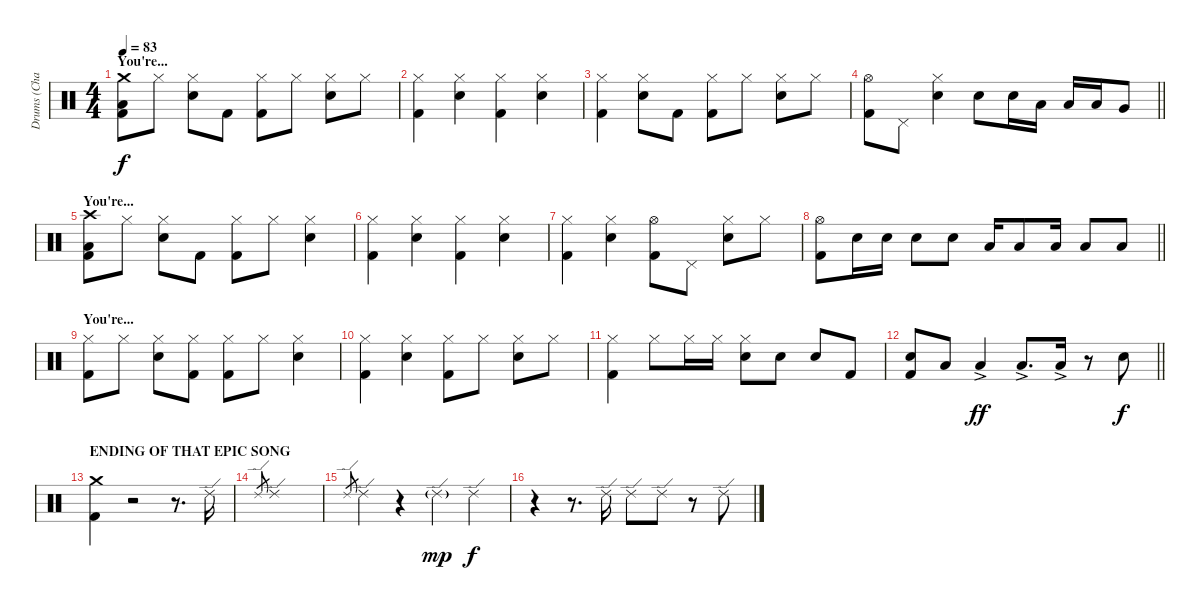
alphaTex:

\track ("Drums (Charlie)" "Drums (Cha") {instrument percussion}
\staff {score}
\articulation defaults
\ts (4 4)
\section ("" "You're...")
\tempo 83
\clef neutral
\ks c
("Crash medium (hit)" "Low Floor Tom (hit)" "Kick (hit) 2").8{dy f} "Hi-Hat (closed)".8 ("Hi-Hat (closed)" "Snare (hit) 2").8 "Kick (hit) 2".8 ("Hi-Hat (closed)" "Kick (hit) 2").8 "Hi-Hat (closed)".8 ("Hi-Hat (closed)" "Snare (hit) 2").8 "Hi-Hat (closed)".8 |
("Hi-Hat (closed)" "Kick (hit) 2").4 ("Hi-Hat (closed)" "Snare (hit) 2").4 ("Hi-Hat (closed)" "Kick (hit) 2").4 ("Hi-Hat (closed)" "Snare (hit) 2").4 |
("Hi-Hat (closed)" "Kick (hit) 2").4 ("Hi-Hat (closed)" "Snare (hit) 2").8 "Kick (hit) 2".8 ("Hi-Hat (closed)" "Kick (hit) 2").8 "Hi-Hat (closed)".8 ("Hi-Hat (closed)" "Snare (hit) 2").8 "Hi-Hat (closed)".8 |
\barLineRight lightlight
("Hi-Hat (open)" "Kick (hit) 2").8 "Pedal Hi-Hat (hit)".8 ("Hi-Hat (closed)" "Snare (hit) 2").4 "Snare (hit) 2".8 "Snare (hit) 2".16 "Low Tom (hit)".16 "Low Tom (hit)".16 "Low Floor Tom (hit)".16 "Very Low Tom (hit)".8 |
\section ("" "You're...")
("Crash high (hit)" "Low Floor Tom (hit)" "Kick (hit) 2").8 "Hi-Hat (closed)".8 ("Hi-Hat (closed)" "Snare (hit) 2").8 "Kick (hit) 2".8 ("Hi-Hat (closed)" "Kick (hit) 2").8 "Hi-Hat (closed)".8 ("Hi-Hat (closed)" "Snare (hit) 2").4 |
("Hi-Hat (closed)" "Kick (hit) 2").4 ("Hi-Hat (closed)" "Snare (hit) 2").4 ("Hi-Hat (closed)" "Kick (hit) 2").4 ("Hi-Hat (closed)" "Snare (hit) 2").4 |
("Hi-Hat (closed)" "Kick (hit) 2").4 ("Hi-Hat (closed)" "Snare (hit) 2").4 ("Hi-Hat (open)" "Kick (hit) 2").8 "Pedal Hi-Hat (hit)".8 ("Hi-Hat (closed)" "Snare (hit) 2").8 "Hi-Hat (closed)".8 |
\barLineRight lightlight
("Hi-Hat (open)" "Kick (hit) 2").8 "Snare (hit) 2".16 "Snare (hit) 2".16 "Snare (hit) 2".8 "Snare (hit) 2".8 "Low Tom (hit)".16 "Low Tom (hit)".8 "Low Tom (hit)".16 "Low Tom (hit)".8 "Low Tom (hit)".8 |
\section ("" "You're...")
("Hi-Hat (closed)" "Kick (hit) 2").8 "Hi-Hat (closed)".8 ("Hi-Hat (closed)" "Snare (hit) 2").8 ("Hi-Hat (closed)" "Kick (hit) 2").8 ("Hi-Hat (closed)" "Kick (hit) 2").8 "Hi-Hat (closed)".8 ("Hi-Hat (closed)" "Snare (hit) 2").4 |
("Hi-Hat (closed)" "Kick (hit) 2").4 ("Hi-Hat (closed)" "Snare (hit) 2").4 ("Hi-Hat (closed)" "Kick (hit) 2").8 "Hi-Hat (closed)".8 ("Hi-Hat (closed)" "Snare (hit) 2").8 "Hi-Hat (closed)".8 |
("Hi-Hat (closed)" "Kick (hit) 2").4 "Hi-Hat (closed)".8 "Hi-Hat (closed)".16 "Hi-Hat (closed)".16 ("Hi-Hat (closed)" "Snare (hit) 2").8 "Snare (hit) 2".8 "Snare (hit) 2".8 "Kick (hit) 2".8 |
\barLineRight lightlight
("Snare (hit) 2" "Kick (hit) 2").8 "Low Floor Tom (hit)".8 "Low Tom (hit)"{ac}.4{dy ff} "Low Floor Tom (hit)"{ac}.8{d} "Low Tom (hit)"{ac}.16 r.8 "Snare (hit) 2".8{dy f} |
\section ("" "ENDING OF THAT EPIC SONG")
("Crash medium (hit)" "Kick (hit) 2").4 r.2 r.8{d} "Ride (edge) 2".16 |
"Ride (edge) 2".8{gr} "Ride (edge) 2".1 |
"Ride (edge) 2".8{gr} "Ride (edge) 2".4 r.4 "Ride (edge) 2"{g}.4{dy mp} "Ride (edge) 2".4{dy f} |
r.4 r.8{d} "Ride (edge) 2".16 "Ride (edge) 2".8 "Ride (edge) 2".8 r.8 "Ride (edge) 2".8
